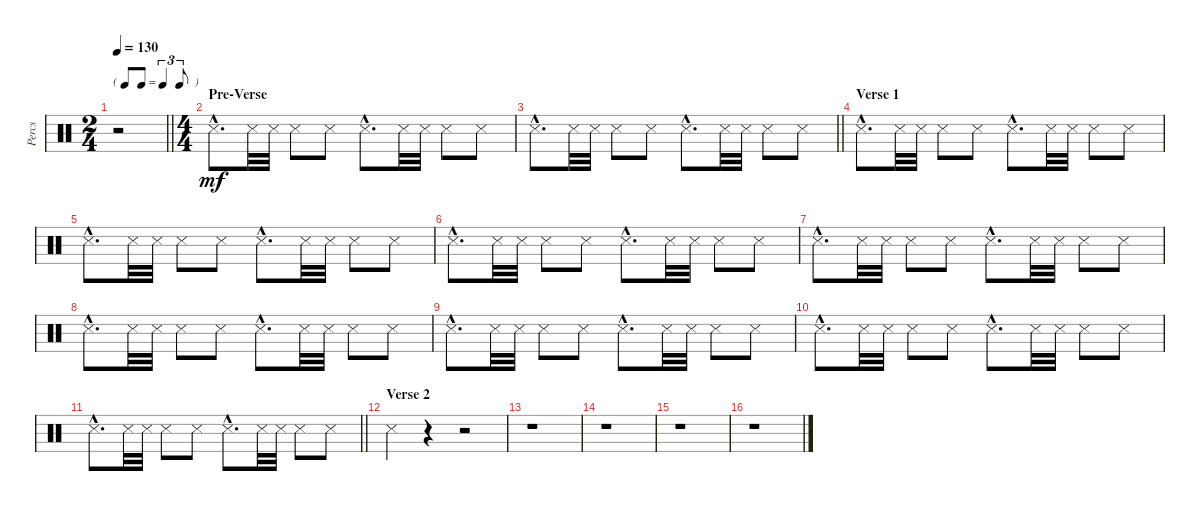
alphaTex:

\track ("Percs" "Percs") {instrument percussion}
\staff {score}
\articulation defaults
\ts (2 4)
\tf triplet8th
\tempo 130
\clef neutral
\barLineRight lightlight
\ks c
r.2{dy mf} |
\ts (4 4)
\section ("" "Pre-Verse")
"Snare (side stick) 3"{hac}.8{d} "Snare (side stick) 3".32 "Snare (side stick) 3".32 "Snare (side stick) 3".8 "Snare (side stick) 3".8 "Snare (side stick) 3"{hac}.8{d} "Snare (side stick) 3".32 "Snare (side stick) 3".32 "Snare (side stick) 3".8 "Snare (side stick) 3".8 |
\barLineRight lightlight "Snare (side stick) 3"{hac}.8{d} "Snare (side stick) 3".32 "Snare (side stick) 3".32 "Snare (side stick) 3".8 "Snare (side stick) 3".8 "Snare (side stick) 3"{hac}.8{d} "Snare (side stick) 3".32 "Snare (side stick) 3".32 "Snare (side stick) 3".8 "Snare (side stick) 3".8
|
\section ("" "Verse 1")
"Snare (side stick) 3"{hac}.8{d} "Snare (side stick) 3".32 "Snare (side stick) 3".32 "Snare (side stick) 3".8 "Snare (side stick) 3".8 "Snare (side stick) 3"{hac}.8{d} "Snare (side stick) 3".32 "Snare (side stick) 3".32 "Snare (side stick) 3".8 "Snare (side stick) 3".8 |
"Snare (side stick) 3"{hac}.8{d} "Snare (side stick) 3".32 "Snare (side stick) 3".32 "Snare (side stick) 3".8 "Snare (side stick) 3".8 "Snare (side stick) 3"{hac}.8{d} "Snare (side stick) 3".32 "Snare (side stick) 3".32 "Snare (side stick) 3".8 "Snare (side stick) 3".8 |
"Snare (side stick) 3"{hac}.8{d} "Snare (side stick) 3".32 "Snare (side stick) 3".32 "Snare (side stick) 3".8 "Snare (side stick) 3".8 "Snare (side stick) 3"{hac}.8{d} "Snare (side stick) 3".32 "Snare (side stick) 3".32 "Snare (side stick) 3".8 "Snare (side stick) 3".8 |
"Snare (side stick) 3"{hac}.8{d} "Snare (side stick) 3".32 "Snare (side stick) 3".32 "Snare (side stick) 3".8 "Snare (side stick) 3".8 "Snare (side stick) 3"{hac}.8{d} "Snare (side stick) 3".32 "Snare (side stick) 3".32 "Snare (side stick) 3".8 "Snare (side stick) 3".8 |
"Snare (side stick) 3"{hac}.8{d} "Snare (side stick) 3".32 "Snare (side stick) 3".32 "Snare (side stick) 3".8 "Snare (side stick) 3".8 "Snare (side stick) 3"{hac}.8{d} "Snare (side stick) 3".32 "Snare (side stick) 3".32 "Snare (side stick) 3".8 "Snare (side stick) 3".8 |
"Snare (side stick) 3"{hac}.8{d} "Snare (side stick) 3".32 "Snare (side stick) 3".32 "Snare (side stick) 3".8 "Snare (side stick) 3".8 "Snare (side stick) 3"{hac}.8{d} "Snare (side stick) 3".32 "Snare (side stick) 3".32 "Snare (side stick) 3".8 "Snare (side stick) 3".8 |
"Snare (side stick) 3"{hac}.8{d} "Snare (side stick) 3".32 "Snare (side stick) 3".32 "Snare (side stick) 3".8 "Snare (side stick) 3".8 "Snare (side stick) 3"{hac}.8{d} "Snare (side stick) 3".32 "Snare (side stick) 3".32 "Snare (side stick) 3".8 "Snare (side stick) 3".8 |
\barLineRight lightlight "Snare (side stick) 3"{hac}.8{d} "Snare (side stick) 3".32 "Snare (side stick) 3".32 "Snare (side stick) 3".8 "Snare (side stick) 3".8 "Snare (side stick) 3"{hac}.8{d} "Snare (side stick) 3".32 "Snare (side stick) 3".32 "Snare (side stick) 3".8 "Snare (side stick) 3".8
|
\section ("" "Verse 2")
"Snare (side stick) 3".4 r.4 r.2 |
r.1 |
r.1 |
r.1 |
r.1
